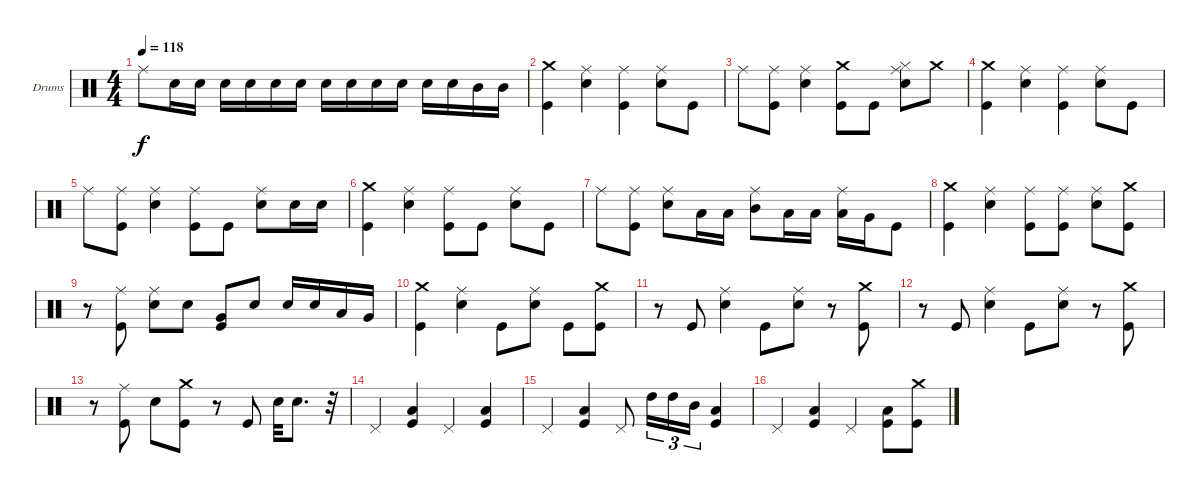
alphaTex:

\bracketExtendMode groupsimilarinstruments
\firstSystemTrackNameOrientation horizontal
\otherSystemsTrackNameOrientation horizontal
\track ("Vinny Appice" "Drums") {instrument percussion}
\staff {score}
\articulation defaults
\ts (4 4)
\tempo 118
\clef neutral
\ks c "Ride (middle)".8{dy f} "Snare (hit) 2".16 "Snare (hit) 2".16 "Snare (hit) 2".16 "Snare (hit) 2".16 "Snare (hit) 2".16 "Snare (hit) 2".16 "Snare (hit) 2".16 "Snare (hit) 2".16 "Snare (hit) 2".16 "Snare (hit) 2".16 "Snare (hit) 2".16 "Snare (hit) 2".16 "Mid Tom (hit)".16 "Mid Tom (hit)".16
|
("Kick (hit)" "Crash medium (hit)").4 ("Ride (middle)" "Snare (hit) 2").4 ("Ride (middle)" "Kick (hit)").4 ("Ride (middle)" "Snare (hit) 2").8 "Kick (hit)".8 |
"Ride (middle)".8 ("Ride (middle)" "Kick (hit)").8 ("Ride (middle)" "Snare (hit) 2").4 ("Kick (hit)" "Crash medium (hit)").8 "Kick (hit)".8 ("Snare (hit) 2" "Hi-Hat (closed)" "Ride (middle)").8 "Crash medium (hit)".8 |
("Kick (hit)" "Crash medium (hit)").4 ("Ride (middle)" "Snare (hit) 2").4 ("Ride (middle)" "Kick (hit)").4 ("Ride (middle)" "Snare (hit) 2").8 "Kick (hit)".8 |
"Ride (middle)".8 ("Ride (middle)" "Kick (hit)").8 ("Ride (middle)" "Snare (hit) 2").4 ("Ride (middle)" "Kick (hit)").8 "Kick (hit)".8 ("Ride (middle)" "Snare (hit) 2").8 "Snare (hit) 2".16 "Snare (hit) 2".16 |
("Kick (hit)" "Crash medium (hit)").4 ("Ride (middle)" "Snare (hit) 2").4 ("Kick (hit)" "Ride (middle)").8 "Kick (hit)".8 ("Ride (middle)" "Snare (hit) 2").8 "Kick (hit)".8 |
"Ride (middle)".8 ("Ride (middle)" "Kick (hit)").8 ("Ride (middle)" "Snare (hit) 2").8 "Low Tom (hit)".16 "Low Tom (hit)".16 ("Mid Tom (hit)" "Ride (middle)").8 "Low Tom (hit)".16 "Low Tom (hit)".16 ("Low Tom (hit)" "Ride (middle)").16 "Very Low Tom (hit)".16 "Kick (hit)".8 |
("Kick (hit)" "Crash medium (hit)").4 ("Ride (middle)" "Snare (hit) 2").4 ("Ride (middle)" "Kick (hit)").8 ("Ride (middle)" "Kick (hit)").8 ("Ride (middle)" "Snare (hit) 2").8 ("Kick (hit)" "Crash medium (hit)").8 |
r.8 ("Ride (middle)" "Kick (hit)").8 ("Ride (middle)" "Snare (hit) 2").8 "Snare (hit) 2".8 ("Very Low Tom (hit)" "Kick (hit)").8 "Snare (hit) 2".8 "Snare (hit) 2".16 "Snare (hit) 2".16 "Low Tom (hit)".16 "Very Low Tom (hit)".16 |
("Kick (hit)" "Crash medium (hit)").4 ("Ride (middle)" "Snare (hit) 2").4 "Kick (hit)".8 ("Ride (middle)" "Snare (hit) 2").8 "Kick (hit)".8 ("Kick (hit)" "Crash medium (hit)").8 |
r.8 "Kick (hit)".8 ("Ride (middle)" "Snare (hit) 2").4 "Kick (hit)".8 ("Ride (middle)" "Snare (hit) 2").8 r.8 ("Crash medium (hit)" "Kick (hit)").8 |
r.8 "Kick (hit)".8 ("Ride (middle)" "Snare (hit) 2").4 "Kick (hit)".8 ("Ride (middle)" "Snare (hit) 2").8 r.8 ("Kick (hit)" "Crash medium (hit)").8 |
r.8 ("Ride (middle)" "Kick (hit)").8 "Snare (hit) 2".8 ("Crash medium (hit)" "Kick (hit)").8 r.8 "Kick (hit)".8 "Snare (hit) 2".32 "Snare (hit) 2".8{d} r.32 |
"Pedal Hi-Hat (hit)".4 ("Kick (hit)" "Low Tom (hit)").4 "Pedal Hi-Hat (hit)".4 ("Kick (hit)" "Low Tom (hit)").4 |
"Pedal Hi-Hat (hit)".4 ("Low Tom (hit)" "Kick (hit)").4 "Pedal Hi-Hat (hit)".8 "High Tom (hit)".16{tu (3 2)} "High Tom (hit)".16{tu (3 2)} "Mid Tom (hit)".16{tu (3 2)} ("Kick (hit)" "Low Tom (hit)").4 |
"Pedal Hi-Hat (hit)".4 ("Kick (hit)" "Low Tom (hit)").4 "Pedal Hi-Hat (hit)".4 ("Kick (hit)" "Low Tom (hit)").8 ("Kick (hit)" "Crash medium (hit)").8
